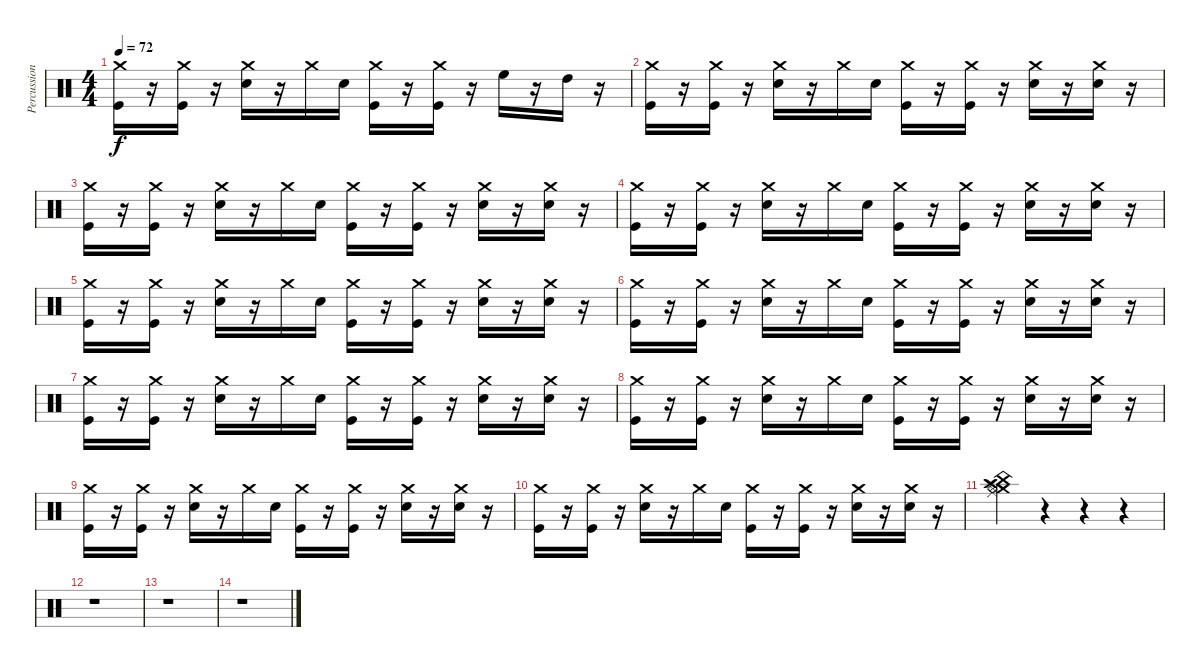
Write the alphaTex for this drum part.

\track ("Percussion" "Percussion") {instrument percussion}
\staff {score}
\articulation defaults
\ts (4 4)
\tempo 72
\clef neutral
\ks c
("Crash medium (hit)" "Kick (hit)").16{dy f} r.16 ("Crash medium (hit)" "Kick (hit)").16 r.16 ("Crash medium (hit)" "Electric Snare (hit)").16 r.16 "Crash medium (hit)".16 "Electric Snare (hit)".16 ("Crash medium (hit)" "Kick (hit)").16 r.16 ("Crash medium (hit)" "Kick (hit)").16 r.16 "High Floor Tom (hit)".16 r.16 "High Tom (hit)".16 r.16 |
("Crash medium (hit)" "Kick (hit)").16 r.16 ("Crash medium (hit)" "Kick (hit)").16 r.16 ("Crash medium (hit)" "Electric Snare (hit)").16 r.16 "Crash medium (hit)".16 "Electric Snare (hit)".16 ("Crash medium (hit)" "Kick (hit)").16 r.16 ("Crash medium (hit)" "Kick (hit)").16 r.16 ("Crash medium (hit)" "Electric Snare (hit)").16 r.16 ("Crash medium (hit)" "Electric Snare (hit)").16 r.16 |
("Crash medium (hit)" "Kick (hit)").16 r.16 ("Crash medium (hit)" "Kick (hit)").16 r.16 ("Crash medium (hit)" "Electric Snare (hit)").16 r.16 "Crash medium (hit)".16 "Electric Snare (hit)".16 ("Crash medium (hit)" "Kick (hit)").16 r.16 ("Crash medium (hit)" "Kick (hit)").16 r.16 ("Crash medium (hit)" "Electric Snare (hit)").16 r.16 ("Crash medium (hit)" "Electric Snare (hit)").16 r.16 |
("Crash medium (hit)" "Kick (hit)").16 r.16 ("Crash medium (hit)" "Kick (hit)").16 r.16 ("Crash medium (hit)" "Electric Snare (hit)").16 r.16 "Crash medium (hit)".16 "Electric Snare (hit)".16 ("Crash medium (hit)" "Kick (hit)").16 r.16 ("Crash medium (hit)" "Kick (hit)").16 r.16 ("Crash medium (hit)" "Electric Snare (hit)").16 r.16 ("Crash medium (hit)" "Electric Snare (hit)").16 r.16 |
("Crash medium (hit)" "Kick (hit)").16 r.16 ("Crash medium (hit)" "Kick (hit)").16 r.16 ("Crash medium (hit)" "Electric Snare (hit)").16 r.16 "Crash medium (hit)".16 "Electric Snare (hit)".16 ("Crash medium (hit)" "Kick (hit)").16 r.16 ("Crash medium (hit)" "Kick (hit)").16 r.16 ("Crash medium (hit)" "Electric Snare (hit)").16 r.16 ("Crash medium (hit)" "Electric Snare (hit)").16 r.16 |
("Crash medium (hit)" "Kick (hit)").16 r.16 ("Crash medium (hit)" "Kick (hit)").16 r.16 ("Crash medium (hit)" "Electric Snare (hit)").16 r.16 "Crash medium (hit)".16 "Electric Snare (hit)".16 ("Crash medium (hit)" "Kick (hit)").16 r.16 ("Crash medium (hit)" "Kick (hit)").16 r.16 ("Crash medium (hit)" "Electric Snare (hit)").16 r.16 ("Crash medium (hit)" "Electric Snare (hit)").16 r.16 |
("Crash medium (hit)" "Kick (hit)").16 r.16 ("Crash medium (hit)" "Kick (hit)").16 r.16 ("Crash medium (hit)" "Electric Snare (hit)").16 r.16 "Crash medium (hit)".16 "Electric Snare (hit)".16 ("Crash medium (hit)" "Kick (hit)").16 r.16 ("Crash medium (hit)" "Kick (hit)").16 r.16 ("Crash medium (hit)" "Electric Snare (hit)").16 r.16 ("Crash medium (hit)" "Electric Snare (hit)").16 r.16 |
("Crash medium (hit)" "Kick (hit)").16 r.16 ("Crash medium (hit)" "Kick (hit)").16 r.16 ("Crash medium (hit)" "Electric Snare (hit)").16 r.16 "Crash medium (hit)".16 "Electric Snare (hit)".16 ("Crash medium (hit)" "Kick (hit)").16 r.16 ("Crash medium (hit)" "Kick (hit)").16 r.16 ("Crash medium (hit)" "Electric Snare (hit)").16 r.16 ("Crash medium (hit)" "Electric Snare (hit)").16 r.16 |
("Crash medium (hit)" "Kick (hit)").16 r.16 ("Crash medium (hit)" "Kick (hit)").16 r.16 ("Crash medium (hit)" "Electric Snare (hit)").16 r.16 "Crash medium (hit)".16 "Electric Snare (hit)".16 ("Crash medium (hit)" "Kick (hit)").16 r.16 ("Crash medium (hit)" "Kick (hit)").16 r.16 ("Crash medium (hit)" "Electric Snare (hit)").16 r.16 ("Crash medium (hit)" "Electric Snare (hit)").16 r.16 |
("Crash medium (hit)" "Kick (hit)").16 r.16 ("Crash medium (hit)" "Kick (hit)").16 r.16 ("Crash medium (hit)" "Electric Snare (hit)").16 r.16 "Crash medium (hit)".16 "Electric Snare (hit)".16 ("Crash medium (hit)" "Kick (hit)").16 r.16 ("Crash medium (hit)" "Kick (hit)").16 r.16 ("Crash medium (hit)" "Electric Snare (hit)").16 r.16 ("Crash medium (hit)" "Electric Snare (hit)").16 r.16 |
("Crash medium (hit)" "Crash high (hit)" "Hi-Hat (open)" "Ride (middle)" "Splash (hit)" "China (hit)").4 r.4 r.4 r.4 |
r.1 |
r.1 |
r.1
